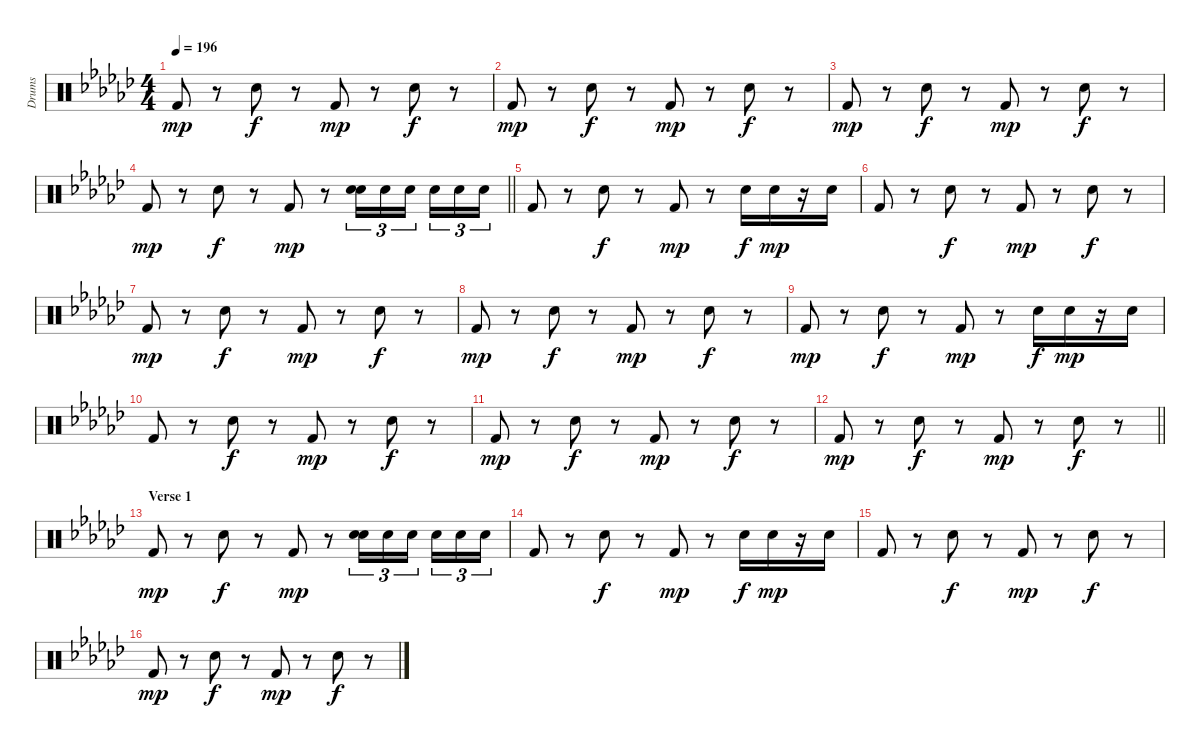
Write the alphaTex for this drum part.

\track ("Drums" "Drums") {instrument percussion}
\staff {score}
\articulation defaults
\ts (4 4)
\tempo 196
\clef neutral
\ks gb "Kick (hit) 2".8{dy mp}
r.8 "Snare (hit) 2".8{dy f} r.8 "Kick (hit) 2".8{dy mp} r.8 "Snare (hit) 2".8{dy f} r.8 |
"Kick (hit) 2".8{dy mp} r.8 "Snare (hit) 2".8{dy f} r.8 "Kick (hit) 2".8{dy mp} r.8 "Snare (hit) 2".8{dy f} r.8 |
"Kick (hit) 2".8{dy mp} r.8 "Snare (hit) 2".8{dy f} r.8 "Kick (hit) 2".8{dy mp} r.8 "Snare (hit) 2".8{dy f} r.8 |
\barLineRight lightlight "Kick (hit) 2".8{dy mp}
r.8 "Snare (hit) 2".8{dy f} r.8 "Kick (hit) 2".8{dy mp} r.8 ("Hand Clap (hit)" "Snare (hit) 2").16{tu (3 2)} "Hand Clap (hit)".16{tu (3 2)} "Hand Clap (hit)".16{tu (3 2) beam splitsecondary} "Hand Clap (hit)".16{tu (3 2)} "Hand Clap (hit)".16{tu (3 2)} "Hand Clap (hit)".16{tu (3 2)} |
"Kick (hit) 2".8 r.8 "Snare (hit) 2".8{dy f} r.8 "Kick (hit) 2".8{dy mp} r.8 "Snare (hit) 2".16{dy f} "Hand Clap (hit)".16{dy mp} r.16 "Hand Clap (hit)".16 |
"Kick (hit) 2".8 r.8 "Snare (hit) 2".8{dy f} r.8 "Kick (hit) 2".8{dy mp} r.8 "Snare (hit) 2".8{dy f} r.8 |
"Kick (hit) 2".8{dy mp} r.8 "Snare (hit) 2".8{dy f} r.8 "Kick (hit) 2".8{dy mp} r.8 "Snare (hit) 2".8{dy f} r.8 |
"Kick (hit) 2".8{dy mp} r.8 "Snare (hit) 2".8{dy f} r.8 "Kick (hit) 2".8{dy mp} r.8 "Snare (hit) 2".8{dy f} r.8 |
"Kick (hit) 2".8{dy mp} r.8 "Snare (hit) 2".8{dy f} r.8 "Kick (hit) 2".8{dy mp} r.8 "Snare (hit) 2".16{dy f} "Hand Clap (hit)".16{dy mp} r.16 "Hand Clap (hit)".16 |
"Kick (hit) 2".8 r.8 "Snare (hit) 2".8{dy f} r.8 "Kick (hit) 2".8{dy mp} r.8 "Snare (hit) 2".8{dy f} r.8 |
"Kick (hit) 2".8{dy mp} r.8 "Snare (hit) 2".8{dy f} r.8 "Kick (hit) 2".8{dy mp} r.8 "Snare (hit) 2".8{dy f} r.8 |
\barLineRight lightlight "Kick (hit) 2".8{dy mp}
r.8 "Snare (hit) 2".8{dy f} r.8 "Kick (hit) 2".8{dy mp} r.8 "Snare (hit) 2".8{dy f} r.8 |
\section ("" "Verse 1")
"Kick (hit) 2".8{dy mp} r.8 "Snare (hit) 2".8{dy f} r.8 "Kick (hit) 2".8{dy mp} r.8 ("Hand Clap (hit)" "Snare (hit) 2").16{tu (3 2)} "Hand Clap (hit)".16{tu (3 2)} "Hand Clap (hit)".16{tu (3 2) beam splitsecondary} "Hand Clap (hit)".16{tu (3 2)} "Hand Clap (hit)".16{tu (3 2)} "Hand Clap (hit)".16{tu (3 2)} |
"Kick (hit) 2".8 r.8 "Snare (hit) 2".8{dy f} r.8 "Kick (hit) 2".8{dy mp} r.8 "Snare (hit) 2".16{dy f} "Hand Clap (hit)".16{dy mp} r.16 "Hand Clap (hit)".16 |
"Kick (hit) 2".8 r.8 "Snare (hit) 2".8{dy f} r.8 "Kick (hit) 2".8{dy mp} r.8 "Snare (hit) 2".8{dy f} r.8 |
"Kick (hit) 2".8{dy mp} r.8 "Snare (hit) 2".8{dy f} r.8 "Kick (hit) 2".8{dy mp} r.8 "Snare (hit) 2".8{dy f} r.8
